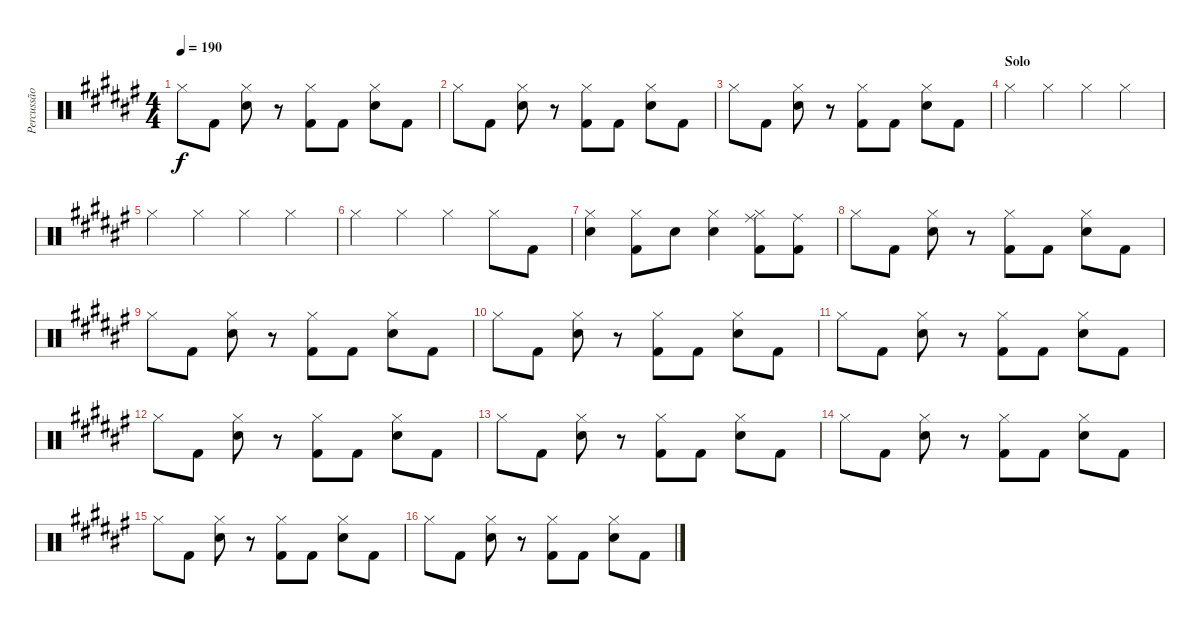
\track ("Percussão" "Percussão") {instrument percussion}
\staff {score}
\articulation defaults
\ts (4 4)
\tempo 190
\clef neutral
\ks d#minor "Hi-Hat (closed)".8{dy f} "Kick (hit) 2".8
("Hi-Hat (closed)" "Snare (hit) 2").8 r.8 ("Hi-Hat (closed)" "Kick (hit) 2").8 "Kick (hit) 2".8 ("Hi-Hat (closed)" "Snare (hit) 2").8 "Kick (hit) 2".8 |
"Hi-Hat (closed)".8 "Kick (hit) 2".8 ("Hi-Hat (closed)" "Snare (hit) 2").8 r.8 ("Hi-Hat (closed)" "Kick (hit) 2").8 "Kick (hit) 2".8 ("Hi-Hat (closed)" "Snare (hit) 2").8 "Kick (hit) 2".8 |
"Hi-Hat (closed)".8 "Kick (hit) 2".8 ("Hi-Hat (closed)" "Snare (hit) 2").8 r.8 ("Hi-Hat (closed)" "Kick (hit) 2").8 "Kick (hit) 2".8 ("Hi-Hat (closed)" "Snare (hit) 2").8 "Kick (hit) 2".8 |
\section ("" "Solo")
"Hi-Hat (closed)".4 "Hi-Hat (closed)".4 "Hi-Hat (closed)".4 "Hi-Hat (closed)".4 |
"Hi-Hat (closed)".4 "Hi-Hat (closed)".4 "Hi-Hat (closed)".4 "Hi-Hat (closed)".4 |
"Hi-Hat (closed)".4 "Hi-Hat (closed)".4 "Hi-Hat (closed)".4 "Hi-Hat (closed)".8 "Kick (hit) 2".8 |
("Hi-Hat (closed)" "Snare (hit) 2").4 ("Hi-Hat (closed)" "Kick (hit) 2").8 "Snare (hit) 2".8 ("Hi-Hat (closed)" "Snare (hit) 2").4 ("Hi-Hat (closed)" "Kick (hit) 2" "Ride (middle)").8 ("Kick (hit) 2" "Ride (middle)").8 |
"Hi-Hat (closed)".8 "Kick (hit) 2".8 ("Hi-Hat (closed)" "Snare (hit) 2").8 r.8 ("Hi-Hat (closed)" "Kick (hit) 2").8 "Kick (hit) 2".8 ("Hi-Hat (closed)" "Snare (hit) 2").8 "Kick (hit) 2".8 |
"Hi-Hat (closed)".8 "Kick (hit) 2".8 ("Hi-Hat (closed)" "Snare (hit) 2").8 r.8 ("Hi-Hat (closed)" "Kick (hit) 2").8 "Kick (hit) 2".8 ("Hi-Hat (closed)" "Snare (hit) 2").8 "Kick (hit) 2".8 |
"Hi-Hat (closed)".8 "Kick (hit) 2".8 ("Hi-Hat (closed)" "Snare (hit) 2").8 r.8 ("Hi-Hat (closed)" "Kick (hit) 2").8 "Kick (hit) 2".8 ("Hi-Hat (closed)" "Snare (hit) 2").8 "Kick (hit) 2".8 |
"Hi-Hat (closed)".8 "Kick (hit) 2".8 ("Hi-Hat (closed)" "Snare (hit) 2").8 r.8 ("Hi-Hat (closed)" "Kick (hit) 2").8 "Kick (hit) 2".8 ("Hi-Hat (closed)" "Snare (hit) 2").8 "Kick (hit) 2".8 |
"Hi-Hat (closed)".8 "Kick (hit) 2".8 ("Hi-Hat (closed)" "Snare (hit) 2").8 r.8 ("Hi-Hat (closed)" "Kick (hit) 2").8 "Kick (hit) 2".8 ("Hi-Hat (closed)" "Snare (hit) 2").8 "Kick (hit) 2".8 |
"Hi-Hat (closed)".8 "Kick (hit) 2".8 ("Hi-Hat (closed)" "Snare (hit) 2").8 r.8 ("Hi-Hat (closed)" "Kick (hit) 2").8 "Kick (hit) 2".8 ("Hi-Hat (closed)" "Snare (hit) 2").8 "Kick (hit) 2".8 |
"Hi-Hat (closed)".8 "Kick (hit) 2".8 ("Hi-Hat (closed)" "Snare (hit) 2").8 r.8 ("Hi-Hat (closed)" "Kick (hit) 2").8 "Kick (hit) 2".8 ("Hi-Hat (closed)" "Snare (hit) 2").8 "Kick (hit) 2".8 |
"Hi-Hat (closed)".8 "Kick (hit) 2".8 ("Hi-Hat (closed)" "Snare (hit) 2").8 r.8 ("Hi-Hat (closed)" "Kick (hit) 2").8 "Kick (hit) 2".8 ("Hi-Hat (closed)" "Snare (hit) 2").8 "Kick (hit) 2".8 |
"Hi-Hat (closed)".8 "Kick (hit) 2".8 ("Hi-Hat (closed)" "Snare (hit) 2").8 r.8 ("Hi-Hat (closed)" "Kick (hit) 2").8 "Kick (hit) 2".8 ("Hi-Hat (closed)" "Snare (hit) 2").8 "Kick (hit) 2".8
